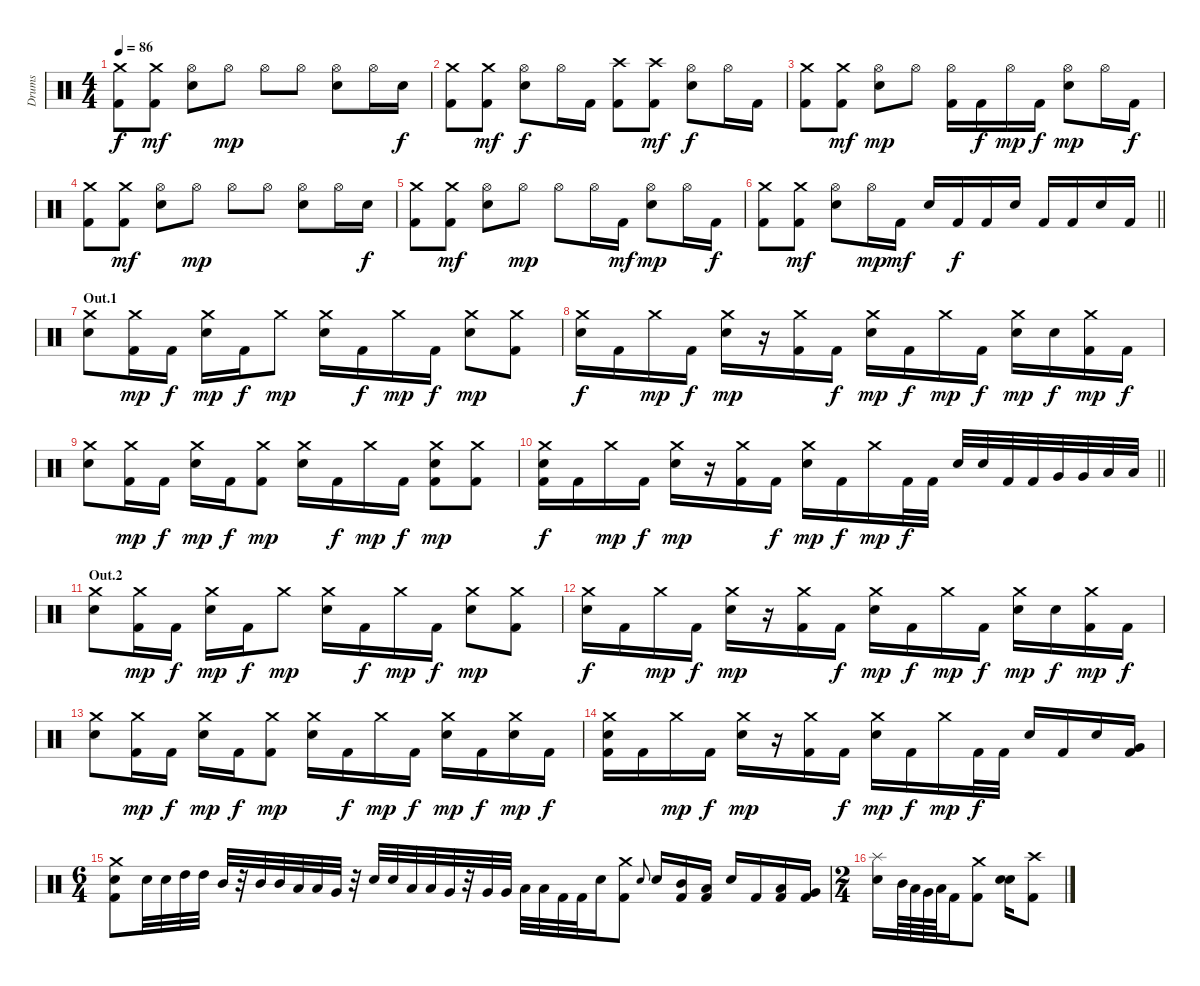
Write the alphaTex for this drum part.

\track ("Drums" "Drums") {instrument percussion}
\staff {score}
\articulation defaults
\ts (4 4)
\tempo 86
\clef neutral
\ks c
("Crash medium (hit)" "Kick (hit) 2").8{dy f} ("Crash medium (hit)" "Kick (hit) 2").8{dy mf} ("Hi-Hat (open)" "Electric Snare (hit)").8 "Hi-Hat (open)".8{dy mp} "Hi-Hat (open)".8 "Hi-Hat (open)".8 ("Hi-Hat (open)" "Electric Snare (hit)").8 "Hi-Hat (open)".16 "Electric Snare (hit)".16{dy f} |
("Crash medium (hit)" "Kick (hit) 2").8 ("Crash medium (hit)" "Kick (hit) 2").8{dy mf} ("Hi-Hat (open)" "Electric Snare (hit)").8{dy f} "Hi-Hat (open)".16 "Kick (hit) 2".16 ("Crash high (hit)" "Kick (hit) 2").8 ("Crash high (hit)" "Kick (hit) 2").8{dy mf} ("Hi-Hat (open)" "Electric Snare (hit)").8{dy f} "Hi-Hat (open)".16 "Kick (hit) 2".16 |
("Crash medium (hit)" "Kick (hit) 2").8 ("Crash medium (hit)" "Kick (hit) 2").8{dy mf} ("Hi-Hat (open)" "Electric Snare (hit)").8{dy mp} "Hi-Hat (open)".8 ("Hi-Hat (open)" "Kick (hit) 2").16 "Kick (hit) 2".16{dy f} "Hi-Hat (open)".16{dy mp} "Kick (hit) 2".16{dy f} ("Hi-Hat (open)" "Electric Snare (hit)").8{dy mp} "Hi-Hat (open)".16 "Kick (hit) 2".16{dy f} |
("Crash medium (hit)" "Kick (hit) 2").8 ("Crash medium (hit)" "Kick (hit) 2").8{dy mf} ("Hi-Hat (open)" "Electric Snare (hit)").8 "Hi-Hat (open)".8{dy mp} "Hi-Hat (open)".8 "Hi-Hat (open)".8 ("Hi-Hat (open)" "Electric Snare (hit)").8 "Hi-Hat (open)".16 "Electric Snare (hit)".16{dy f} |
("Crash medium (hit)" "Kick (hit) 2").8 ("Crash medium (hit)" "Kick (hit) 2").8{dy mf} ("Hi-Hat (open)" "Electric Snare (hit)").8 "Hi-Hat (open)".8{dy mp} "Hi-Hat (open)".8 "Hi-Hat (open)".16 "Kick (hit) 2".16{dy mf} ("Hi-Hat (open)" "Electric Snare (hit)").8{dy mp} "Hi-Hat (open)".16 "Kick (hit) 2".16{dy f} |
\barLineRight lightlight
("Crash medium (hit)" "Kick (hit) 2").8 ("Crash medium (hit)" "Kick (hit) 2").8{dy mf} ("Hi-Hat (open)" "Electric Snare (hit)").8 "Hi-Hat (open)".16{dy mp} "Kick (hit) 2".16{dy mf} "Electric Snare (hit)".16 "Kick (hit) 2".16{dy f} "Kick (hit) 2".16 "Electric Snare (hit)".16 "Kick (hit) 2".16 "Kick (hit) 2".16 "Electric Snare (hit)".16 "Kick (hit) 2".16 |
\section ("" "Out.1")
("Crash medium (hit)" "Electric Snare (hit)").8 ("Crash medium (hit)" "Kick (hit) 2").16{dy mp} "Kick (hit) 2".16{dy f} ("Crash medium (hit)" "Electric Snare (hit)").16{dy mp} "Kick (hit) 2".16{dy f} "Crash medium (hit)".8{dy mp} ("Crash medium (hit)" "Electric Snare (hit)").16 "Kick (hit) 2".16{dy f} "Crash medium (hit)".16{dy mp} "Kick (hit) 2".16{dy f} ("Crash medium (hit)" "Electric Snare (hit)").8{dy mp} ("Crash medium (hit)" "Kick (hit) 2").8 |
("Crash medium (hit)" "Electric Snare (hit)").16{dy f} "Kick (hit) 2".16 "Crash medium (hit)".16{dy mp} "Kick (hit) 2".16{dy f} ("Crash medium (hit)" "Electric Snare (hit)").16{dy mp} r.16 ("Crash medium (hit)" "Kick (hit) 2").16 "Kick (hit) 2".16{dy f} ("Crash medium (hit)" "Electric Snare (hit)").16{dy mp} "Kick (hit) 2".16{dy f} "Crash medium (hit)".16{dy mp} "Kick (hit) 2".16{dy f} ("Crash medium (hit)" "Electric Snare (hit)").16{dy mp} "Electric Snare (hit)".16{dy f} ("Crash medium (hit)" "Kick (hit) 2").16{dy mp} "Kick (hit) 2".16{dy f} |
("Crash medium (hit)" "Electric Snare (hit)").8 ("Crash medium (hit)" "Kick (hit) 2").16{dy mp} "Kick (hit) 2".16{dy f} ("Crash medium (hit)" "Electric Snare (hit)").16{dy mp} "Kick (hit) 2".16{dy f} ("Crash medium (hit)" "Kick (hit) 2").8{dy mp} ("Crash medium (hit)" "Electric Snare (hit)").16 "Kick (hit) 2".16{dy f} "Crash medium (hit)".16{dy mp} "Kick (hit) 2".16{dy f} ("Crash medium (hit)" "Electric Snare (hit)" "Kick (hit) 2").8{dy mp} ("Crash medium (hit)" "Kick (hit) 2").8 |
\barLineRight lightlight
("Crash medium (hit)" "Electric Snare (hit)" "Kick (hit) 2").16{dy f} "Kick (hit) 2".16 "Crash medium (hit)".16{dy mp} "Kick (hit) 2".16{dy f} ("Crash medium (hit)" "Electric Snare (hit)").16{dy mp} r.16 ("Crash medium (hit)" "Kick (hit) 2").16 "Kick (hit) 2".16{dy f} ("Crash medium (hit)" "Electric Snare (hit)").16{dy mp} "Kick (hit) 2".16{dy f} "Crash medium (hit)".16{dy mp} "Kick (hit) 2".32{dy f} "Kick (hit) 2".32 "Electric Snare (hit)".32 "Electric Snare (hit)".32 "Kick (hit) 2".32 "Kick (hit) 2".32 "Very Low Tom (hit)".32 "Very Low Tom (hit)".32 "Low Floor Tom (hit)".32 "Low Floor Tom (hit)".32 |
\section ("" "Out.2")
("Crash medium (hit)" "Electric Snare (hit)").8 ("Crash medium (hit)" "Kick (hit) 2").16{dy mp} "Kick (hit) 2".16{dy f} ("Crash medium (hit)" "Electric Snare (hit)").16{dy mp} "Kick (hit) 2".16{dy f} "Crash medium (hit)".8{dy mp} ("Crash medium (hit)" "Electric Snare (hit)").16 "Kick (hit) 2".16{dy f} "Crash medium (hit)".16{dy mp} "Kick (hit) 2".16{dy f} ("Crash medium (hit)" "Electric Snare (hit)").8{dy mp} ("Crash medium (hit)" "Kick (hit) 2").8 |
("Crash medium (hit)" "Electric Snare (hit)").16{dy f} "Kick (hit) 2".16 "Crash medium (hit)".16{dy mp} "Kick (hit) 2".16{dy f} ("Crash medium (hit)" "Electric Snare (hit)").16{dy mp} r.16 ("Crash medium (hit)" "Kick (hit) 2").16 "Kick (hit) 2".16{dy f} ("Crash medium (hit)" "Electric Snare (hit)").16{dy mp} "Kick (hit) 2".16{dy f} "Crash medium (hit)".16{dy mp} "Kick (hit) 2".16{dy f} ("Crash medium (hit)" "Electric Snare (hit)").16{dy mp} "Electric Snare (hit)".16{dy f} ("Crash medium (hit)" "Kick (hit) 2").16{dy mp} "Kick (hit) 2".16{dy f} |
("Crash medium (hit)" "Electric Snare (hit)").8 ("Crash medium (hit)" "Kick (hit) 2").16{dy mp} "Kick (hit) 2".16{dy f} ("Crash medium (hit)" "Electric Snare (hit)").16{dy mp} "Kick (hit) 2".16{dy f} ("Crash medium (hit)" "Kick (hit) 2").8{dy mp} ("Crash medium (hit)" "Electric Snare (hit)").16 "Kick (hit) 2".16{dy f} "Crash medium (hit)".16{dy mp} "Kick (hit) 2".16{dy f} ("Crash medium (hit)" "Electric Snare (hit)").16{dy mp} "Kick (hit) 2".16{dy f} ("Crash medium (hit)" "Electric Snare (hit)").16{dy mp} "Kick (hit) 2".16{dy f} |
("Crash medium (hit)" "Electric Snare (hit)" "Kick (hit) 2").16 "Kick (hit) 2".16 "Crash medium (hit)".16{dy mp} "Kick (hit) 2".16{dy f} ("Crash medium (hit)" "Electric Snare (hit)").16{dy mp} r.16 ("Crash medium (hit)" "Kick (hit) 2").16 "Kick (hit) 2".16{dy f} ("Crash medium (hit)" "Electric Snare (hit)").16{dy mp} "Kick (hit) 2".16{dy f} "Crash medium (hit)".16{dy mp} "Kick (hit) 2".32{dy f} "Kick (hit) 2".32 "Electric Snare (hit)".16 "Kick (hit) 2".16 "Electric Snare (hit)".16 ("Very Low Tom (hit)" "Kick (hit) 2").16 |
\ts (6 4)
("Crash medium (hit)" "Electric Snare (hit)" "Kick (hit) 2").8 "Electric Snare (hit)".32 "Electric Snare (hit)".32 "High Tom (hit)".32 "High Tom (hit)".32 "Mid Tom (hit)".32 r.32 "Mid Tom (hit)".32 "Mid Tom (hit)".32 "Low Tom (hit)".32 "Low Tom (hit)".32 "Very Low Tom (hit)".32 r.32 "Electric Snare (hit)".32 "Electric Snare (hit)".32 "Low Tom (hit)".32 "Low Tom (hit)".32 "Very Low Tom (hit)".32 r.32 "Very Low Tom (hit)".32 "Very Low Tom (hit)".32 "Low Floor Tom (hit)".32 "Low Floor Tom (hit)".32 "Kick (hit) 2".32 "Kick (hit) 2".32 "Electric Snare (hit)".16 ("Crash medium (hit)" "Kick (hit) 2").8 "Electric Snare (hit)".8{gr onbeat} "Electric Snare (hit)".16 ("Mid Tom (hit)" "Kick (hit) 2").16 ("Low Tom (hit)" "Kick (hit) 2").16 "Electric Snare (hit)".16 "Kick (hit) 2".16 ("Low Tom (hit)" "Kick (hit) 2").16 ("Very Low Tom (hit)" "Kick (hit) 2").16 |
\ts (2 4)
("Splash (hit)" "Electric Snare (hit)").16 "Mid Tom (hit)".64 "Low Tom (hit)".64 "Very Low Tom (hit)".64 "Low Floor Tom (hit)".64 "Kick (hit) 2".16 ("Crash medium (hit)" "Kick (hit) 2").8 ("Electric Snare (hit)" "Electric Snare (hit)").16 ("Crash high (hit)" "Kick (hit) 2").8
